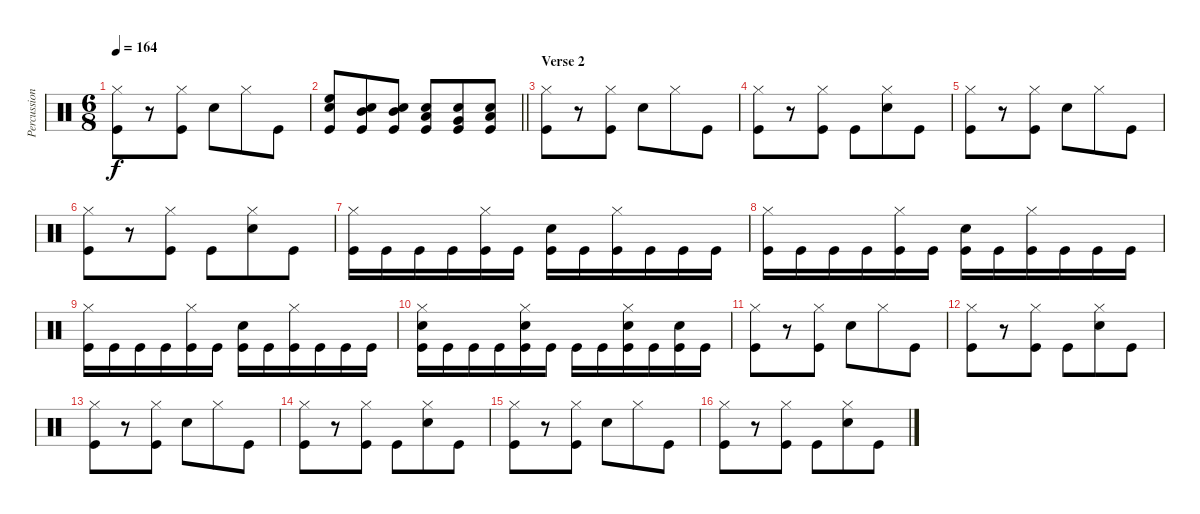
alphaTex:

\track ("Percussion" "Percussion") {instrument percussion}
\staff {score}
\articulation defaults
\ts (6 8)
\tempo 164
\clef neutral
\ks c
("Hi-Hat (closed)" "Kick (hit)").8{dy f} r.8 ("Hi-Hat (closed)" "Kick (hit)").8 "Snare (hit) 2".8 "Hi-Hat (closed)".8 "Kick (hit)".8 |
\barLineRight lightlight
("High Floor Tom (hit)" "Snare (hit) 2" "Kick (hit)").8 ("Mid Tom (hit)" "Snare (hit) 2" "Kick (hit)").8 ("Mid Tom (hit)" "Snare (hit) 2" "Kick (hit)").8 ("Low Tom (hit)" "Snare (hit) 2" "Kick (hit)").8 ("Very Low Tom (hit)" "Snare (hit) 2" "Kick (hit)").8 ("Low Floor Tom (hit)" "Snare (hit) 2" "Kick (hit)").8 |
\section ("" "Verse 2")
("Hi-Hat (closed)" "Kick (hit)").8 r.8 ("Hi-Hat (closed)" "Kick (hit)").8 "Snare (hit) 2".8 "Hi-Hat (closed)".8 "Kick (hit)".8 |
("Hi-Hat (closed)" "Kick (hit)").8 r.8 ("Hi-Hat (closed)" "Kick (hit)").8 "Kick (hit)".8 ("Hi-Hat (closed)" "Snare (hit) 2").8 "Kick (hit)".8 |
("Hi-Hat (closed)" "Kick (hit)").8 r.8 ("Hi-Hat (closed)" "Kick (hit)").8 "Snare (hit) 2".8 "Hi-Hat (closed)".8 "Kick (hit)".8 |
("Hi-Hat (closed)" "Kick (hit)").8 r.8 ("Hi-Hat (closed)" "Kick (hit)").8 "Kick (hit)".8 ("Hi-Hat (closed)" "Snare (hit) 2").8 "Kick (hit)".8 |
("Hi-Hat (closed)" "Kick (hit)").16 "Kick (hit)".16 "Kick (hit)".16 "Kick (hit)".16 ("Hi-Hat (closed)" "Kick (hit)").16 "Kick (hit)".16 ("Snare (hit) 2" "Kick (hit)").16 "Kick (hit)".16 ("Hi-Hat (closed)" "Kick (hit)").16 "Kick (hit)".16 "Kick (hit)".16 "Kick (hit)".16 |
("Hi-Hat (closed)" "Kick (hit)").16 "Kick (hit)".16 "Kick (hit)".16 "Kick (hit)".16 ("Hi-Hat (closed)" "Kick (hit)").16 "Kick (hit)".16 ("Snare (hit) 2" "Kick (hit)").16 "Kick (hit)".16 ("Hi-Hat (closed)" "Kick (hit)").16 "Kick (hit)".16 "Kick (hit)".16 "Kick (hit)".16 |
("Hi-Hat (closed)" "Kick (hit)").16 "Kick (hit)".16 "Kick (hit)".16 "Kick (hit)".16 ("Hi-Hat (closed)" "Kick (hit)").16 "Kick (hit)".16 ("Snare (hit) 2" "Kick (hit)").16 "Kick (hit)".16 ("Hi-Hat (closed)" "Kick (hit)").16 "Kick (hit)".16 "Kick (hit)".16 "Kick (hit)".16 |
("Hi-Hat (closed)" "Snare (hit) 2" "Kick (hit)").16 "Kick (hit)".16 "Kick (hit)".16 "Kick (hit)".16 ("Hi-Hat (closed)" "Snare (hit) 2" "Kick (hit)").16 "Kick (hit)".16 "Kick (hit)".16 "Kick (hit)".16 ("Hi-Hat (closed)" "Snare (hit) 2" "Kick (hit)").16 "Kick (hit)".16 ("Snare (hit) 2" "Kick (hit)").16 "Kick (hit)".16 |
("Hi-Hat (closed)" "Kick (hit)").8 r.8 ("Hi-Hat (closed)" "Kick (hit)").8 "Snare (hit) 2".8 "Hi-Hat (closed)".8 "Kick (hit)".8 |
("Hi-Hat (closed)" "Kick (hit)").8 r.8 ("Hi-Hat (closed)" "Kick (hit)").8 "Kick (hit)".8 ("Hi-Hat (closed)" "Snare (hit) 2").8 "Kick (hit)".8 |
("Hi-Hat (closed)" "Kick (hit)").8 r.8 ("Hi-Hat (closed)" "Kick (hit)").8 "Snare (hit) 2".8 "Hi-Hat (closed)".8 "Kick (hit)".8 |
("Hi-Hat (closed)" "Kick (hit)").8 r.8 ("Hi-Hat (closed)" "Kick (hit)").8 "Kick (hit)".8 ("Hi-Hat (closed)" "Snare (hit) 2").8 "Kick (hit)".8 |
("Hi-Hat (closed)" "Kick (hit)").8 r.8 ("Hi-Hat (closed)" "Kick (hit)").8 "Snare (hit) 2".8 "Hi-Hat (closed)".8 "Kick (hit)".8 |
("Hi-Hat (closed)" "Kick (hit)").8 r.8 ("Hi-Hat (closed)" "Kick (hit)").8 "Kick (hit)".8 ("Hi-Hat (closed)" "Snare (hit) 2").8 "Kick (hit)".8
